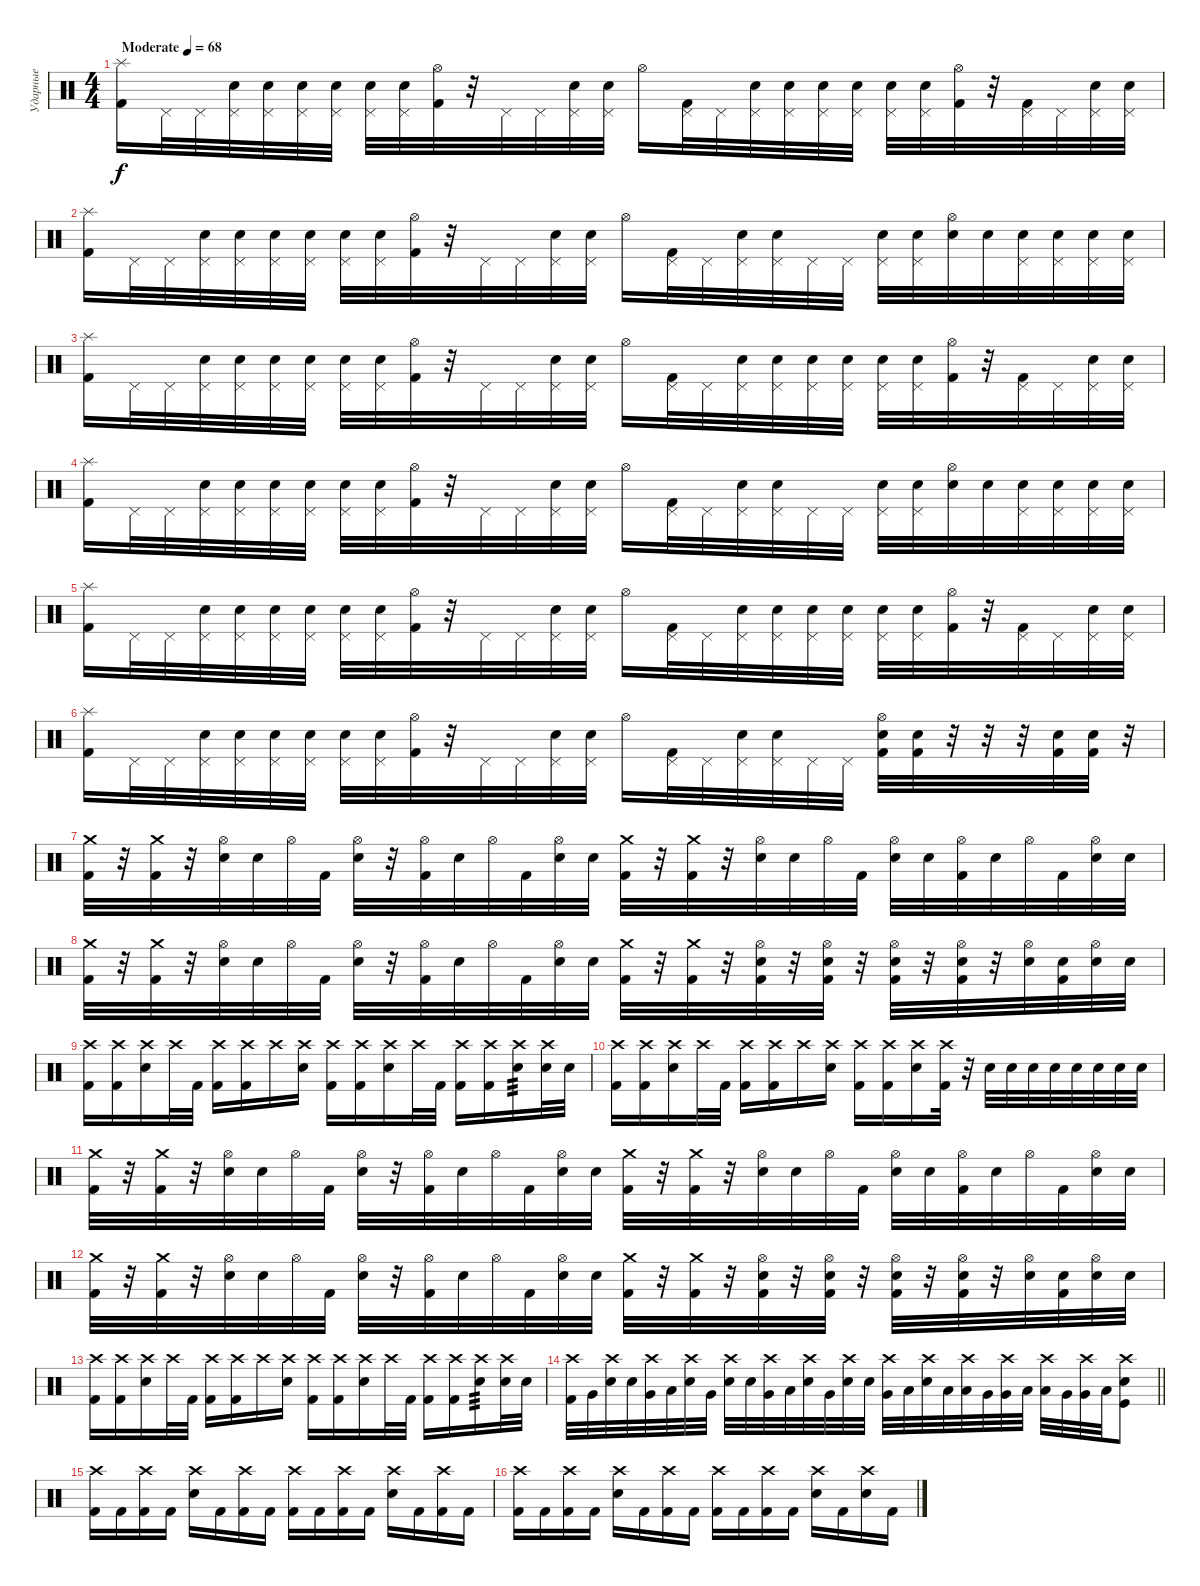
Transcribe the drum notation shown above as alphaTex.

\track ("Ударные" "Ударные") {instrument percussion}
\staff {score}
\articulation defaults
\ts (4 4)
\tempo (68 "Moderate")
\clef neutral
\ks c
("Splash (hit)" "Kick (hit) 2").16{dy f} "Pedal Hi-Hat (hit)".32 "Pedal Hi-Hat (hit)".32 ("Pedal Hi-Hat (hit)" "Electric Snare (hit)").32 ("Pedal Hi-Hat (hit)" "Electric Snare (hit)").32 ("Pedal Hi-Hat (hit)" "Electric Snare (hit)").32 ("Pedal Hi-Hat (hit)" "Electric Snare (hit)").32 ("Pedal Hi-Hat (hit)" "Electric Snare (hit)").32 ("Pedal Hi-Hat (hit)" "Electric Snare (hit)").32 ("Hi-Hat (open)" "Kick (hit) 2").32 r.32 "Pedal Hi-Hat (hit)".32 "Pedal Hi-Hat (hit)".32 ("Pedal Hi-Hat (hit)" "Electric Snare (hit)").32 ("Pedal Hi-Hat (hit)" "Electric Snare (hit)").32 "Hi-Hat (open)".16 ("Pedal Hi-Hat (hit)" "Kick (hit) 2").32 "Pedal Hi-Hat (hit)".32 ("Pedal Hi-Hat (hit)" "Electric Snare (hit)").32 ("Pedal Hi-Hat (hit)" "Electric Snare (hit)").32 ("Pedal Hi-Hat (hit)" "Electric Snare (hit)").32 ("Pedal Hi-Hat (hit)" "Electric Snare (hit)").32 ("Pedal Hi-Hat (hit)" "Electric Snare (hit)").32 ("Pedal Hi-Hat (hit)" "Electric Snare (hit)").32 ("Hi-Hat (open)" "Kick (hit) 2").32 r.32 ("Pedal Hi-Hat (hit)" "Kick (hit) 2").32 "Pedal Hi-Hat (hit)".32 ("Pedal Hi-Hat (hit)" "Electric Snare (hit)").32 ("Pedal Hi-Hat (hit)" "Electric Snare (hit)").32 |
("Splash (hit)" "Kick (hit) 2").16 "Pedal Hi-Hat (hit)".32 "Pedal Hi-Hat (hit)".32 ("Pedal Hi-Hat (hit)" "Electric Snare (hit)").32 ("Pedal Hi-Hat (hit)" "Electric Snare (hit)").32 ("Pedal Hi-Hat (hit)" "Electric Snare (hit)").32 ("Pedal Hi-Hat (hit)" "Electric Snare (hit)").32 ("Pedal Hi-Hat (hit)" "Electric Snare (hit)").32 ("Pedal Hi-Hat (hit)" "Electric Snare (hit)").32 ("Hi-Hat (open)" "Kick (hit) 2").32 r.32 "Pedal Hi-Hat (hit)".32 "Pedal Hi-Hat (hit)".32 ("Pedal Hi-Hat (hit)" "Electric Snare (hit)").32 ("Pedal Hi-Hat (hit)" "Electric Snare (hit)").32 "Hi-Hat (open)".16 ("Pedal Hi-Hat (hit)" "Kick (hit) 2").32 "Pedal Hi-Hat (hit)".32 ("Pedal Hi-Hat (hit)" "Electric Snare (hit)").32 ("Pedal Hi-Hat (hit)" "Electric Snare (hit)").32 "Pedal Hi-Hat (hit)".32 "Pedal Hi-Hat (hit)".32 ("Pedal Hi-Hat (hit)" "Electric Snare (hit)").32 ("Pedal Hi-Hat (hit)" "Electric Snare (hit)").32 ("Hi-Hat (open)" "Electric Snare (hit)").32 "Electric Snare (hit)".32 ("Pedal Hi-Hat (hit)" "Electric Snare (hit)").32 ("Pedal Hi-Hat (hit)" "Electric Snare (hit)").32 ("Pedal Hi-Hat (hit)" "Electric Snare (hit)").32 ("Pedal Hi-Hat (hit)" "Electric Snare (hit)").32 |
("Splash (hit)" "Kick (hit) 2").16 "Pedal Hi-Hat (hit)".32 "Pedal Hi-Hat (hit)".32 ("Pedal Hi-Hat (hit)" "Electric Snare (hit)").32 ("Pedal Hi-Hat (hit)" "Electric Snare (hit)").32 ("Pedal Hi-Hat (hit)" "Electric Snare (hit)").32 ("Pedal Hi-Hat (hit)" "Electric Snare (hit)").32 ("Pedal Hi-Hat (hit)" "Electric Snare (hit)").32 ("Pedal Hi-Hat (hit)" "Electric Snare (hit)").32 ("Hi-Hat (open)" "Kick (hit) 2").32 r.32 "Pedal Hi-Hat (hit)".32 "Pedal Hi-Hat (hit)".32 ("Pedal Hi-Hat (hit)" "Electric Snare (hit)").32 ("Pedal Hi-Hat (hit)" "Electric Snare (hit)").32 "Hi-Hat (open)".16 ("Pedal Hi-Hat (hit)" "Kick (hit) 2").32 "Pedal Hi-Hat (hit)".32 ("Pedal Hi-Hat (hit)" "Electric Snare (hit)").32 ("Pedal Hi-Hat (hit)" "Electric Snare (hit)").32 ("Pedal Hi-Hat (hit)" "Electric Snare (hit)").32 ("Pedal Hi-Hat (hit)" "Electric Snare (hit)").32 ("Pedal Hi-Hat (hit)" "Electric Snare (hit)").32 ("Pedal Hi-Hat (hit)" "Electric Snare (hit)").32 ("Hi-Hat (open)" "Kick (hit) 2").32 r.32 ("Pedal Hi-Hat (hit)" "Kick (hit) 2").32 "Pedal Hi-Hat (hit)".32 ("Pedal Hi-Hat (hit)" "Electric Snare (hit)").32 ("Pedal Hi-Hat (hit)" "Electric Snare (hit)").32 |
("Splash (hit)" "Kick (hit) 2").16 "Pedal Hi-Hat (hit)".32 "Pedal Hi-Hat (hit)".32 ("Pedal Hi-Hat (hit)" "Electric Snare (hit)").32 ("Pedal Hi-Hat (hit)" "Electric Snare (hit)").32 ("Pedal Hi-Hat (hit)" "Electric Snare (hit)").32 ("Pedal Hi-Hat (hit)" "Electric Snare (hit)").32 ("Pedal Hi-Hat (hit)" "Electric Snare (hit)").32 ("Pedal Hi-Hat (hit)" "Electric Snare (hit)").32 ("Hi-Hat (open)" "Kick (hit) 2").32 r.32 "Pedal Hi-Hat (hit)".32 "Pedal Hi-Hat (hit)".32 ("Pedal Hi-Hat (hit)" "Electric Snare (hit)").32 ("Pedal Hi-Hat (hit)" "Electric Snare (hit)").32 "Hi-Hat (open)".16 ("Pedal Hi-Hat (hit)" "Kick (hit) 2").32 "Pedal Hi-Hat (hit)".32 ("Pedal Hi-Hat (hit)" "Electric Snare (hit)").32 ("Pedal Hi-Hat (hit)" "Electric Snare (hit)").32 "Pedal Hi-Hat (hit)".32 "Pedal Hi-Hat (hit)".32 ("Pedal Hi-Hat (hit)" "Electric Snare (hit)").32 ("Pedal Hi-Hat (hit)" "Electric Snare (hit)").32 ("Hi-Hat (open)" "Electric Snare (hit)").32 "Electric Snare (hit)".32 ("Pedal Hi-Hat (hit)" "Electric Snare (hit)").32 ("Pedal Hi-Hat (hit)" "Electric Snare (hit)").32 ("Pedal Hi-Hat (hit)" "Electric Snare (hit)").32 ("Pedal Hi-Hat (hit)" "Electric Snare (hit)").32 |
("Splash (hit)" "Kick (hit) 2").16 "Pedal Hi-Hat (hit)".32 "Pedal Hi-Hat (hit)".32 ("Pedal Hi-Hat (hit)" "Electric Snare (hit)").32 ("Pedal Hi-Hat (hit)" "Electric Snare (hit)").32 ("Pedal Hi-Hat (hit)" "Electric Snare (hit)").32 ("Pedal Hi-Hat (hit)" "Electric Snare (hit)").32 ("Pedal Hi-Hat (hit)" "Electric Snare (hit)").32 ("Pedal Hi-Hat (hit)" "Electric Snare (hit)").32 ("Hi-Hat (open)" "Kick (hit) 2").32 r.32 "Pedal Hi-Hat (hit)".32 "Pedal Hi-Hat (hit)".32 ("Pedal Hi-Hat (hit)" "Electric Snare (hit)").32 ("Pedal Hi-Hat (hit)" "Electric Snare (hit)").32 "Hi-Hat (open)".16 ("Pedal Hi-Hat (hit)" "Kick (hit) 2").32 "Pedal Hi-Hat (hit)".32 ("Pedal Hi-Hat (hit)" "Electric Snare (hit)").32 ("Pedal Hi-Hat (hit)" "Electric Snare (hit)").32 ("Pedal Hi-Hat (hit)" "Electric Snare (hit)").32 ("Pedal Hi-Hat (hit)" "Electric Snare (hit)").32 ("Pedal Hi-Hat (hit)" "Electric Snare (hit)").32 ("Pedal Hi-Hat (hit)" "Electric Snare (hit)").32 ("Hi-Hat (open)" "Kick (hit) 2").32 r.32 ("Pedal Hi-Hat (hit)" "Kick (hit) 2").32 "Pedal Hi-Hat (hit)".32 ("Pedal Hi-Hat (hit)" "Electric Snare (hit)").32 ("Pedal Hi-Hat (hit)" "Electric Snare (hit)").32 |
("Splash (hit)" "Kick (hit) 2").16 "Pedal Hi-Hat (hit)".32 "Pedal Hi-Hat (hit)".32 ("Pedal Hi-Hat (hit)" "Electric Snare (hit)").32 ("Pedal Hi-Hat (hit)" "Electric Snare (hit)").32 ("Pedal Hi-Hat (hit)" "Electric Snare (hit)").32 ("Pedal Hi-Hat (hit)" "Electric Snare (hit)").32 ("Pedal Hi-Hat (hit)" "Electric Snare (hit)").32 ("Pedal Hi-Hat (hit)" "Electric Snare (hit)").32 ("Hi-Hat (open)" "Kick (hit) 2").32 r.32 "Pedal Hi-Hat (hit)".32 "Pedal Hi-Hat (hit)".32 ("Pedal Hi-Hat (hit)" "Electric Snare (hit)").32 ("Pedal Hi-Hat (hit)" "Electric Snare (hit)").32 "Hi-Hat (open)".16 ("Pedal Hi-Hat (hit)" "Kick (hit) 2").32 "Pedal Hi-Hat (hit)".32 ("Pedal Hi-Hat (hit)" "Electric Snare (hit)").32 ("Pedal Hi-Hat (hit)" "Electric Snare (hit)").32 "Pedal Hi-Hat (hit)".32 "Pedal Hi-Hat (hit)".32 ("Hi-Hat (open)" "Kick (hit) 2" "Electric Snare (hit)").32 ("Kick (hit) 2" "Electric Snare (hit)").32 r.32 r.32 r.32 ("Kick (hit) 2" "Electric Snare (hit)").32 ("Kick (hit) 2" "Electric Snare (hit)").32 r.32 |
("Crash medium (hit)" "Kick (hit) 2").32 r.32 ("Crash medium (hit)" "Kick (hit) 2").32 r.32 ("Hi-Hat (open)" "Electric Snare (hit)").32 "Electric Snare (hit)".32 "Hi-Hat (open)".32 "Kick (hit) 2".32 ("Hi-Hat (open)" "Electric Snare (hit)").32 r.32 ("Hi-Hat (open)" "Kick (hit) 2").32 "Electric Snare (hit)".32 "Hi-Hat (open)".32 "Kick (hit) 2".32 ("Hi-Hat (open)" "Electric Snare (hit)").32 "Electric Snare (hit)".32 ("Crash medium (hit)" "Kick (hit) 2").32 r.32 ("Crash medium (hit)" "Kick (hit) 2").32 r.32 ("Hi-Hat (open)" "Electric Snare (hit)").32 "Electric Snare (hit)".32 "Hi-Hat (open)".32 "Kick (hit) 2".32 ("Hi-Hat (open)" "Electric Snare (hit)").32 "Electric Snare (hit)".32 ("Hi-Hat (open)" "Kick (hit) 2").32 "Electric Snare (hit)".32 "Hi-Hat (open)".32 "Kick (hit) 2".32 ("Hi-Hat (open)" "Electric Snare (hit)").32 "Electric Snare (hit)".32 |
("Crash medium (hit)" "Kick (hit) 2").32 r.32 ("Crash medium (hit)" "Kick (hit) 2").32 r.32 ("Hi-Hat (open)" "Electric Snare (hit)").32 "Electric Snare (hit)".32 "Hi-Hat (open)".32 "Kick (hit) 2".32 ("Hi-Hat (open)" "Electric Snare (hit)").32 r.32 ("Hi-Hat (open)" "Kick (hit) 2").32 "Electric Snare (hit)".32 "Hi-Hat (open)".32 "Kick (hit) 2".32 ("Hi-Hat (open)" "Electric Snare (hit)").32 "Electric Snare (hit)".32 ("Crash medium (hit)" "Kick (hit) 2").32 r.32 ("Crash medium (hit)" "Kick (hit) 2").32 r.32 ("Hi-Hat (open)" "Electric Snare (hit)" "Kick (hit) 2").32 r.32 ("Hi-Hat (open)" "Electric Snare (hit)" "Kick (hit) 2").32 r.32 ("Hi-Hat (open)" "Electric Snare (hit)" "Kick (hit) 2").32 r.32 ("Hi-Hat (open)" "Electric Snare (hit)" "Kick (hit) 2").32 r.32 ("Hi-Hat (open)" "Electric Snare (hit)").32 ("Electric Snare (hit)" "Kick (hit) 2").32 ("Hi-Hat (open)" "Electric Snare (hit)").32 "Electric Snare (hit)".32 |
("Crash high (hit)" "Kick (hit) 2").16 ("Crash high (hit)" "Kick (hit) 2").16 ("Crash high (hit)" "Electric Snare (hit)").16 "Crash high (hit)".32 "Kick (hit) 2".32 ("Crash high (hit)" "Kick (hit) 2").16 ("Crash high (hit)" "Kick (hit) 2").16 "Crash high (hit)".16 ("Crash high (hit)" "Electric Snare (hit)").16 ("Crash high (hit)" "Kick (hit) 2").16 ("Crash high (hit)" "Kick (hit) 2").16 ("Crash high (hit)" "Electric Snare (hit)").16 "Crash high (hit)".32 "Kick (hit) 2".32 ("Crash high (hit)" "Kick (hit) 2").16 ("Crash high (hit)" "Kick (hit) 2").16 ("Crash high (hit)" "Electric Snare (hit)").16{tp 3} ("Crash high (hit)" "Electric Snare (hit)").32 "Electric Snare (hit)".32 |
("Crash high (hit)" "Kick (hit) 2").16 ("Crash high (hit)" "Kick (hit) 2").16 ("Crash high (hit)" "Electric Snare (hit)").16 "Crash high (hit)".32 "Kick (hit) 2".32 ("Crash high (hit)" "Kick (hit) 2").16 ("Crash high (hit)" "Kick (hit) 2").16 "Crash high (hit)".16 ("Crash high (hit)" "Electric Snare (hit)").16 ("Crash high (hit)" "Kick (hit) 2").16 ("Crash high (hit)" "Kick (hit) 2").16 ("Crash high (hit)" "Electric Snare (hit)").16 ("Crash high (hit)" "Kick (hit) 2").32 r.32 "Electric Snare (hit)".32 "Electric Snare (hit)".32 "Electric Snare (hit)".32 "Electric Snare (hit)".32 "Electric Snare (hit)".32 "Electric Snare (hit)".32 "Electric Snare (hit)".32 "Electric Snare (hit)".32 |
("Crash medium (hit)" "Kick (hit) 2").32 r.32 ("Crash medium (hit)" "Kick (hit) 2").32 r.32 ("Hi-Hat (open)" "Electric Snare (hit)").32 "Electric Snare (hit)".32 "Hi-Hat (open)".32 "Kick (hit) 2".32 ("Hi-Hat (open)" "Electric Snare (hit)").32 r.32 ("Hi-Hat (open)" "Kick (hit) 2").32 "Electric Snare (hit)".32 "Hi-Hat (open)".32 "Kick (hit) 2".32 ("Hi-Hat (open)" "Electric Snare (hit)").32 "Electric Snare (hit)".32 ("Crash medium (hit)" "Kick (hit) 2").32 r.32 ("Crash medium (hit)" "Kick (hit) 2").32 r.32 ("Hi-Hat (open)" "Electric Snare (hit)").32 "Electric Snare (hit)".32 "Hi-Hat (open)".32 "Kick (hit) 2".32 ("Hi-Hat (open)" "Electric Snare (hit)").32 "Electric Snare (hit)".32 ("Hi-Hat (open)" "Kick (hit) 2").32 "Electric Snare (hit)".32 "Hi-Hat (open)".32 "Kick (hit) 2".32 ("Hi-Hat (open)" "Electric Snare (hit)").32 "Electric Snare (hit)".32 |
("Crash medium (hit)" "Kick (hit) 2").32 r.32 ("Crash medium (hit)" "Kick (hit) 2").32 r.32 ("Hi-Hat (open)" "Electric Snare (hit)").32 "Electric Snare (hit)".32 "Hi-Hat (open)".32 "Kick (hit) 2".32 ("Hi-Hat (open)" "Electric Snare (hit)").32 r.32 ("Hi-Hat (open)" "Kick (hit) 2").32 "Electric Snare (hit)".32 "Hi-Hat (open)".32 "Kick (hit) 2".32 ("Hi-Hat (open)" "Electric Snare (hit)").32 "Electric Snare (hit)".32 ("Crash medium (hit)" "Kick (hit) 2").32 r.32 ("Crash medium (hit)" "Kick (hit) 2").32 r.32 ("Hi-Hat (open)" "Electric Snare (hit)" "Kick (hit) 2").32 r.32 ("Hi-Hat (open)" "Electric Snare (hit)" "Kick (hit) 2").32 r.32 ("Hi-Hat (open)" "Electric Snare (hit)" "Kick (hit) 2").32 r.32 ("Hi-Hat (open)" "Electric Snare (hit)" "Kick (hit) 2").32 r.32 ("Hi-Hat (open)" "Electric Snare (hit)").32 ("Electric Snare (hit)" "Kick (hit) 2").32 ("Hi-Hat (open)" "Electric Snare (hit)").32 "Electric Snare (hit)".32 |
("Crash high (hit)" "Kick (hit) 2").16 ("Crash high (hit)" "Kick (hit) 2").16 ("Crash high (hit)" "Electric Snare (hit)").16 "Crash high (hit)".32 "Kick (hit) 2".32 ("Crash high (hit)" "Kick (hit) 2").16 ("Crash high (hit)" "Kick (hit) 2").16 "Crash high (hit)".16 ("Crash high (hit)" "Electric Snare (hit)").16 ("Crash high (hit)" "Kick (hit) 2").16 ("Crash high (hit)" "Kick (hit) 2").16 ("Crash high (hit)" "Electric Snare (hit)").16 "Crash high (hit)".32 "Kick (hit) 2".32 ("Crash high (hit)" "Kick (hit) 2").16 ("Crash high (hit)" "Kick (hit) 2").16 ("Crash high (hit)" "Electric Snare (hit)").16{tp 3} ("Crash high (hit)" "Electric Snare (hit)").32 "Electric Snare (hit)".32 |
\barLineRight lightlight
("Crash high (hit)" "Kick (hit) 2").32 "Very Low Tom (hit)".32 ("Crash high (hit)" "Electric Snare (hit)").32 "Electric Snare (hit)".32 ("Crash high (hit)" "Very Low Tom (hit)").32 "Low Floor Tom (hit)".32 ("Crash high (hit)" "Electric Snare (hit)").32 "Very Low Tom (hit)".32 ("Crash high (hit)" "Electric Snare (hit)").32 "Electric Snare (hit)".32 ("Crash high (hit)" "Very Low Tom (hit)").32 "Low Floor Tom (hit)".32 ("Crash high (hit)" "Electric Snare (hit)").32 "Very Low Tom (hit)".32 ("Crash high (hit)" "Electric Snare (hit)").32 "Electric Snare (hit)".32 ("Crash high (hit)" "Very Low Tom (hit)").32 "Low Floor Tom (hit)".32 ("Crash high (hit)" "Electric Snare (hit)").32 "Low Tom (hit)".32 ("Crash high (hit)" "Low Tom (hit)").32 "Very Low Tom (hit)".32 ("Crash high (hit)" "Very Low Tom (hit)").32 "Low Floor Tom (hit)".32 ("Crash high (hit)" "Low Floor Tom (hit)").32 "Very Low Tom (hit)".32 ("Crash high (hit)" "Very Low Tom (hit)").32 "Low Floor Tom (hit)".32 ("Crash high (hit)" "Electric Snare (hit)" "Kick (hit)").8 |
\section ("" "")
("Crash high (hit)" "Kick (hit) 2").16 "Kick (hit) 2".16 ("Crash high (hit)" "Kick (hit) 2").16 "Kick (hit) 2".16 ("Crash high (hit)" "Electric Snare (hit)").16 "Kick (hit) 2".16 ("Crash high (hit)" "Kick (hit) 2").16 "Kick (hit) 2".16 ("Crash high (hit)" "Kick (hit) 2").16 "Kick (hit) 2".16 ("Crash high (hit)" "Kick (hit) 2").16 "Kick (hit) 2".16 ("Crash high (hit)" "Electric Snare (hit)").16 "Kick (hit) 2".16 ("Crash high (hit)" "Kick (hit) 2").16 "Kick (hit) 2".16 |
("Crash high (hit)" "Kick (hit) 2").16 "Kick (hit) 2".16 ("Crash high (hit)" "Kick (hit) 2").16 "Kick (hit) 2".16 ("Crash high (hit)" "Electric Snare (hit)").16 "Kick (hit) 2".16 ("Crash high (hit)" "Kick (hit) 2").16 "Kick (hit) 2".16 ("Crash high (hit)" "Kick (hit) 2").16 "Kick (hit) 2".16 ("Crash high (hit)" "Kick (hit) 2").16 "Kick (hit) 2".16 ("Crash high (hit)" "Electric Snare (hit)").16 "Kick (hit) 2".16 ("Crash high (hit)" "Electric Snare (hit)").16 "Kick (hit) 2".16
